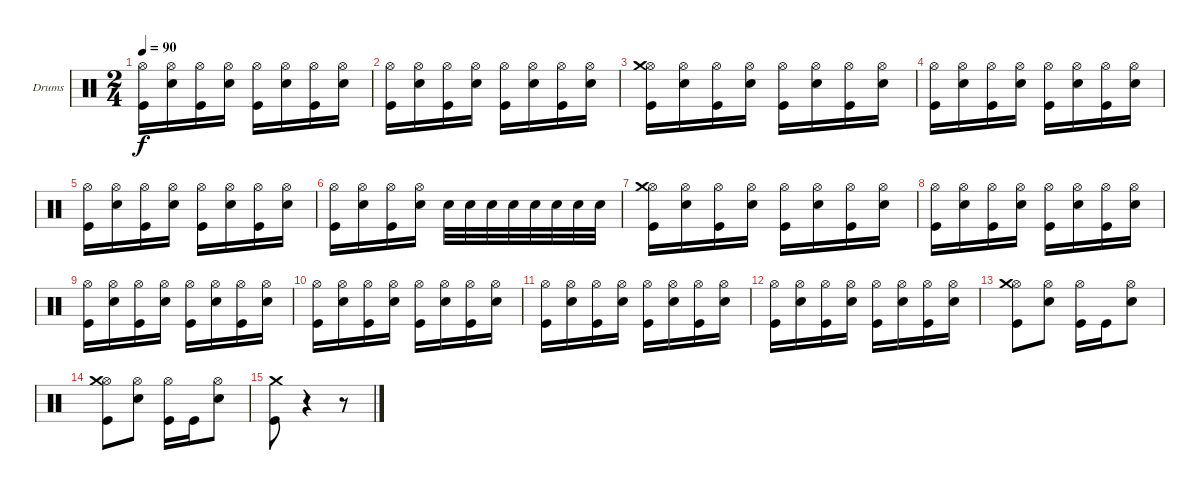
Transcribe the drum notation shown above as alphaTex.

\bracketExtendMode groupsimilarinstruments
\firstSystemTrackNameOrientation horizontal
\otherSystemsTrackNameOrientation horizontal
\track ("Барабаны" "Drums") {instrument percussion}
\staff {score}
\articulation defaults
\ts (2 4)
\tempo 90
\clef neutral
\ks c
("Kick (hit)" "Hi-Hat (open)").16{dy f} ("Snare (hit) 2" "Hi-Hat (open)").16 ("Kick (hit)" "Hi-Hat (open)").16 ("Snare (hit) 2" "Hi-Hat (open)").16 ("Kick (hit)" "Hi-Hat (open)").16 ("Snare (hit) 2" "Hi-Hat (open)").16 ("Kick (hit)" "Hi-Hat (open)").16 ("Snare (hit) 2" "Hi-Hat (open)").16 |
("Kick (hit)" "Hi-Hat (open)").16 ("Snare (hit) 2" "Hi-Hat (open)").16 ("Kick (hit)" "Hi-Hat (open)").16 ("Snare (hit) 2" "Hi-Hat (open)").16 ("Kick (hit)" "Hi-Hat (open)").16 ("Snare (hit) 2" "Hi-Hat (open)").16 ("Kick (hit)" "Hi-Hat (open)").16 ("Snare (hit) 2" "Hi-Hat (open)").16 |
("Kick (hit)" "Hi-Hat (open)" "Crash medium (hit)").16 ("Snare (hit) 2" "Hi-Hat (open)").16 ("Kick (hit)" "Hi-Hat (open)").16 ("Snare (hit) 2" "Hi-Hat (open)").16 ("Kick (hit)" "Hi-Hat (open)").16 ("Snare (hit) 2" "Hi-Hat (open)").16 ("Kick (hit)" "Hi-Hat (open)").16 ("Snare (hit) 2" "Hi-Hat (open)").16 |
("Kick (hit)" "Hi-Hat (open)").16 ("Snare (hit) 2" "Hi-Hat (open)").16 ("Kick (hit)" "Hi-Hat (open)").16 ("Snare (hit) 2" "Hi-Hat (open)").16 ("Kick (hit)" "Hi-Hat (open)").16 ("Snare (hit) 2" "Hi-Hat (open)").16 ("Kick (hit)" "Hi-Hat (open)").16 ("Snare (hit) 2" "Hi-Hat (open)").16 |
("Kick (hit)" "Hi-Hat (open)").16 ("Snare (hit) 2" "Hi-Hat (open)").16 ("Kick (hit)" "Hi-Hat (open)").16 ("Snare (hit) 2" "Hi-Hat (open)").16 ("Kick (hit)" "Hi-Hat (open)").16 ("Snare (hit) 2" "Hi-Hat (open)").16 ("Kick (hit)" "Hi-Hat (open)").16 ("Snare (hit) 2" "Hi-Hat (open)").16 |
("Kick (hit)" "Hi-Hat (open)").16 ("Snare (hit) 2" "Hi-Hat (open)").16 ("Kick (hit)" "Hi-Hat (open)").16 ("Snare (hit) 2" "Hi-Hat (open)").16 "Snare (hit) 2".32 "Snare (hit) 2".32 "Snare (hit) 2".32 "Snare (hit) 2".32 "Snare (hit) 2".32 "Snare (hit) 2".32 "Snare (hit) 2".32 "Snare (hit) 2".32 |
("Kick (hit)" "Hi-Hat (open)" "Crash medium (hit)").16 ("Snare (hit) 2" "Hi-Hat (open)").16 ("Kick (hit)" "Hi-Hat (open)").16 ("Snare (hit) 2" "Hi-Hat (open)").16 ("Kick (hit)" "Hi-Hat (open)").16 ("Snare (hit) 2" "Hi-Hat (open)").16 ("Kick (hit)" "Hi-Hat (open)").16 ("Snare (hit) 2" "Hi-Hat (open)").16 |
("Kick (hit)" "Hi-Hat (open)").16 ("Snare (hit) 2" "Hi-Hat (open)").16 ("Kick (hit)" "Hi-Hat (open)").16 ("Snare (hit) 2" "Hi-Hat (open)").16 ("Kick (hit)" "Hi-Hat (open)").16 ("Snare (hit) 2" "Hi-Hat (open)").16 ("Kick (hit)" "Hi-Hat (open)").16 ("Snare (hit) 2" "Hi-Hat (open)").16 |
("Kick (hit)" "Hi-Hat (open)").16 ("Snare (hit) 2" "Hi-Hat (open)").16 ("Kick (hit)" "Hi-Hat (open)").16 ("Snare (hit) 2" "Hi-Hat (open)").16 ("Kick (hit)" "Hi-Hat (open)").16 ("Snare (hit) 2" "Hi-Hat (open)").16 ("Kick (hit)" "Hi-Hat (open)").16 ("Snare (hit) 2" "Hi-Hat (open)").16 |
("Kick (hit)" "Hi-Hat (open)").16 ("Snare (hit) 2" "Hi-Hat (open)").16 ("Kick (hit)" "Hi-Hat (open)").16 ("Snare (hit) 2" "Hi-Hat (open)").16 ("Kick (hit)" "Hi-Hat (open)").16 ("Snare (hit) 2" "Hi-Hat (open)").16 ("Kick (hit)" "Hi-Hat (open)").16 ("Snare (hit) 2" "Hi-Hat (open)").16 |
("Kick (hit)" "Hi-Hat (open)").16 ("Snare (hit) 2" "Hi-Hat (open)").16 ("Kick (hit)" "Hi-Hat (open)").16 ("Snare (hit) 2" "Hi-Hat (open)").16 ("Kick (hit)" "Hi-Hat (open)").16 ("Snare (hit) 2" "Hi-Hat (open)").16 ("Kick (hit)" "Hi-Hat (open)").16 ("Snare (hit) 2" "Hi-Hat (open)").16 |
("Kick (hit)" "Hi-Hat (open)").16 ("Snare (hit) 2" "Hi-Hat (open)").16 ("Kick (hit)" "Hi-Hat (open)").16 ("Snare (hit) 2" "Hi-Hat (open)").16 ("Kick (hit)" "Hi-Hat (open)").16 ("Snare (hit) 2" "Hi-Hat (open)").16 ("Kick (hit)" "Hi-Hat (open)").16 ("Snare (hit) 2" "Hi-Hat (open)").16 |
("Hi-Hat (open)" "Kick (hit)" "Crash medium (hit)").8 ("Snare (hit) 2" "Hi-Hat (open)").8 ("Kick (hit)" "Hi-Hat (open)").16 "Kick (hit)".16 ("Snare (hit) 2" "Hi-Hat (open)").8 |
("Hi-Hat (open)" "Kick (hit)" "Crash medium (hit)").8 ("Snare (hit) 2" "Hi-Hat (open)").8 ("Hi-Hat (open)" "Kick (hit)").16 "Kick (hit)".16 ("Snare (hit) 2" "Hi-Hat (open)").8 |
("Kick (hit)" "Crash medium (hit)").8 r.4 r.8
